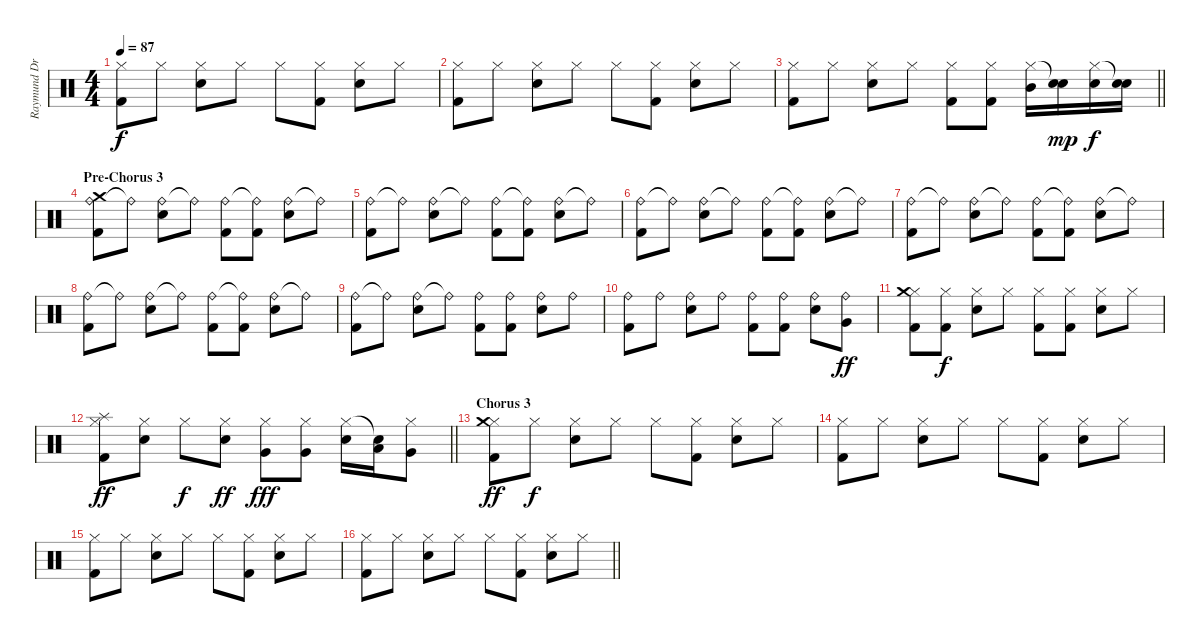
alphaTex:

\track ("Raymund Drums" "Raymund Dr") {instrument percussion}
\staff {score}
\articulation defaults
\ts (4 4)
\tempo 87
\clef neutral
\ks c
("Hi-Hat (closed)" "Kick (hit) 2").8{dy f} "Hi-Hat (closed)".8 ("Hi-Hat (closed)" "Snare (hit) 2").8 "Hi-Hat (closed)".8 "Hi-Hat (closed)".8 ("Hi-Hat (closed)" "Kick (hit) 2").8 ("Hi-Hat (closed)" "Snare (hit) 2").8 "Hi-Hat (closed)".8 |
("Hi-Hat (closed)" "Kick (hit) 2").8 "Hi-Hat (closed)".8 ("Hi-Hat (closed)" "Snare (hit) 2").8 "Hi-Hat (closed)".8 "Hi-Hat (closed)".8 ("Hi-Hat (closed)" "Kick (hit) 2").8 ("Hi-Hat (closed)" "Snare (hit) 2").8 "Hi-Hat (closed)".8 |
\barLineRight lightlight
("Hi-Hat (closed)" "Kick (hit) 2").8 "Hi-Hat (closed)".8 ("Hi-Hat (closed)" "Snare (hit) 2").8 "Hi-Hat (closed)".8 ("Hi-Hat (closed)" "Kick (hit) 2").8 ("Hi-Hat (closed)" "Kick (hit) 2").8 ("Hi-Hat (closed)" "Mid Tom (hit)").16 ("Snare (hit)"{t} "Snare (hit) 2").16{dy mp} ("Hi-Hat (closed)" "Snare (hit) 2").16{dy f} ("Snare (hit)"{t} "Snare (hit) 2").16 |
\section ("" "Pre-Chorus 3")
("Ride (bell)" "Kick (hit) 2" "Crash medium (hit)").8 "Ride (bell)"{t}.8 ("Ride (bell)" "Snare (hit) 2").8 "Ride (bell)"{t}.8 ("Ride (bell)" "Kick (hit) 2").8 ("Ride (bell)"{t} "Kick (hit) 2").8 ("Ride (bell)" "Snare (hit) 2").8 "Ride (bell)"{t}.8 |
("Ride (bell)" "Kick (hit) 2").8 "Ride (bell)"{t}.8 ("Ride (bell)" "Snare (hit) 2").8 "Ride (bell)"{t}.8 ("Ride (bell)" "Kick (hit) 2").8 ("Ride (bell)"{t} "Kick (hit) 2").8 ("Ride (bell)" "Snare (hit) 2").8 "Ride (bell)"{t}.8 |
("Ride (bell)" "Kick (hit) 2").8 "Ride (bell)"{t}.8 ("Ride (bell)" "Snare (hit) 2").8 "Ride (bell)"{t}.8 ("Ride (bell)" "Kick (hit) 2").8 ("Ride (bell)"{t} "Kick (hit) 2").8 ("Ride (bell)" "Snare (hit) 2").8 "Ride (bell)"{t}.8 |
("Ride (bell)" "Kick (hit) 2").8 "Ride (bell)"{t}.8 ("Ride (bell)" "Snare (hit) 2").8 "Ride (bell)"{t}.8 ("Ride (bell)" "Kick (hit) 2").8 ("Ride (bell)"{t} "Kick (hit) 2").8 ("Ride (bell)" "Snare (hit) 2").8 "Ride (bell)"{t}.8 |
("Ride (bell)" "Kick (hit) 2").8 "Ride (bell)"{t}.8 ("Ride (bell)" "Snare (hit) 2").8 "Ride (bell)"{t}.8 ("Ride (bell)" "Kick (hit) 2").8 ("Ride (bell)"{t} "Kick (hit) 2").8 ("Ride (bell)" "Snare (hit) 2").8 "Ride (bell)"{t}.8 |
("Ride (bell)" "Kick (hit) 2").8 "Ride (bell)"{t}.8 ("Ride (bell)" "Snare (hit) 2").8 "Ride (bell)"{t}.8 ("Ride (bell)" "Kick (hit) 2").8 ("Ride (bell)" "Kick (hit) 2").8 ("Ride (bell)" "Snare (hit) 2").8 "Ride (bell)".8 |
("Ride (bell)" "Kick (hit) 2").8 "Ride (bell)".8 ("Ride (bell)" "Snare (hit) 2").8 "Ride (bell)".8 ("Ride (bell)" "Kick (hit) 2").8 ("Ride (bell)" "Kick (hit) 2").8 ("Ride (bell)" "Snare (hit) 2").8 ("Ride (bell)" "Very Low Tom (hit)").8{dy ff} |
("Hi-Hat (closed)" "Kick (hit) 2" "Crash medium (hit)").8 ("Hi-Hat (closed)" "Kick (hit) 2").8{dy f} ("Hi-Hat (closed)" "Snare (hit) 2").8 "Hi-Hat (closed)".8 ("Hi-Hat (closed)" "Kick (hit) 2").8 ("Hi-Hat (closed)" "Kick (hit) 2").8 ("Hi-Hat (closed)" "Snare (hit) 2").8 "Hi-Hat (closed)".8 |
\barLineRight lightlight
("Hi-Hat (closed)" "Kick (hit) 2" "Splash (hit)").8{dy ff} ("Hi-Hat (closed)" "Snare (hit) 2").8 "Hi-Hat (closed)".8{dy f} ("Hi-Hat (closed)" "Snare (hit) 2").8{dy ff} ("Hi-Hat (closed)" "Very Low Tom (hit)").8{dy fff} ("Hi-Hat (closed)" "Very Low Tom (hit)").8 ("Hi-Hat (closed)" "Snare (hit) 2").16 ("Snare (hit)"{t} "Low Tom (hit)").16 ("Hi-Hat (closed)" "Very Low Tom (hit)").8 |
\section ("" "Chorus 3")
("Hi-Hat (closed)" "Kick (hit) 2" "Crash medium (hit)").8{dy ff} "Hi-Hat (closed)".8{dy f} ("Hi-Hat (closed)" "Snare (hit) 2").8 "Hi-Hat (closed)".8 "Hi-Hat (closed)".8 ("Hi-Hat (closed)" "Kick (hit) 2").8 ("Hi-Hat (closed)" "Snare (hit) 2").8 "Hi-Hat (closed)".8 |
("Hi-Hat (closed)" "Kick (hit) 2").8 "Hi-Hat (closed)".8 ("Hi-Hat (closed)" "Snare (hit) 2").8 "Hi-Hat (closed)".8 "Hi-Hat (closed)".8 ("Hi-Hat (closed)" "Kick (hit) 2").8 ("Hi-Hat (closed)" "Snare (hit) 2").8 "Hi-Hat (closed)".8 |
("Hi-Hat (closed)" "Kick (hit) 2").8 "Hi-Hat (closed)".8 ("Hi-Hat (closed)" "Snare (hit) 2").8 "Hi-Hat (closed)".8 "Hi-Hat (closed)".8 ("Hi-Hat (closed)" "Kick (hit) 2").8 ("Hi-Hat (closed)" "Snare (hit) 2").8 "Hi-Hat (closed)".8 |
\barLineRight lightlight
("Hi-Hat (closed)" "Kick (hit) 2").8 "Hi-Hat (closed)".8 ("Hi-Hat (closed)" "Snare (hit) 2").8 "Hi-Hat (closed)".8 "Hi-Hat (closed)".8 ("Hi-Hat (closed)" "Kick (hit) 2").8 ("Hi-Hat (closed)" "Snare (hit) 2").8 "Hi-Hat (closed)".8
